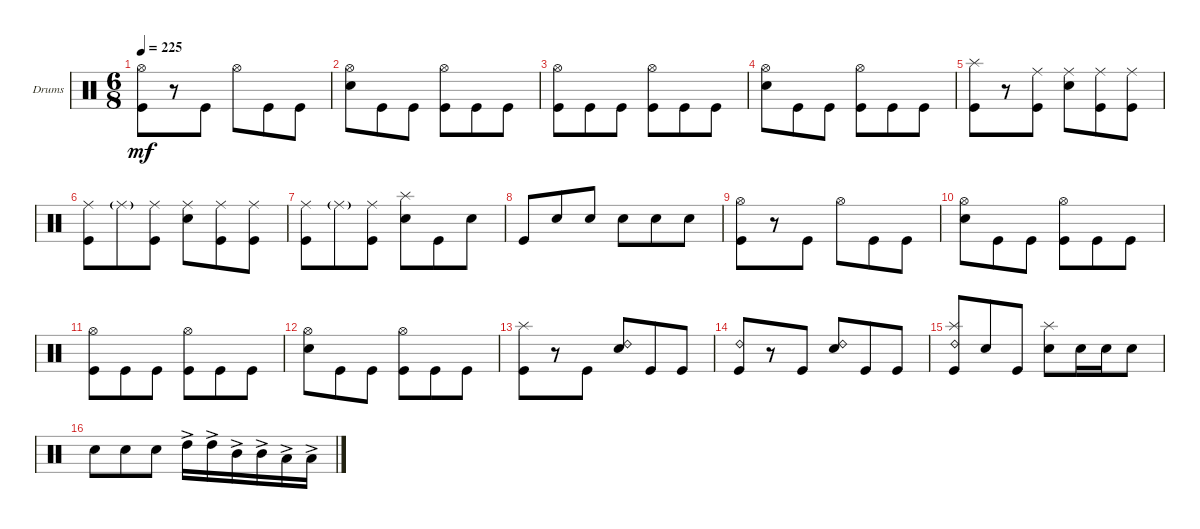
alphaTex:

\bracketExtendMode groupsimilarinstruments
\firstSystemTrackNameOrientation horizontal
\otherSystemsTrackNameOrientation horizontal
\track ("Drumkit" "Drums") {instrument percussion}
\staff {score}
\articulation defaults
\ts (6 8)
\tempo 225
\clef neutral
\ks c
("Kick (hit)" "Hi-Hat (open)").8{dy mf} r.8 "Kick (hit)".8 "Hi-Hat (open)".8 "Kick (hit)".8 "Kick (hit)".8 |
("Snare (hit) 2" "Hi-Hat (open)").8 "Kick (hit)".8 "Kick (hit)".8 ("Kick (hit)" "Hi-Hat (open)").8 "Kick (hit)".8 "Kick (hit)".8 |
("Kick (hit)" "Hi-Hat (open)").8 "Kick (hit)".8 "Kick (hit)".8 ("Kick (hit)" "Hi-Hat (open)").8 "Kick (hit)".8 "Kick (hit)".8 |
("Snare (hit) 2" "Hi-Hat (open)").8 "Kick (hit)".8 "Kick (hit)".8 ("Kick (hit)" "Hi-Hat (open)").8 "Kick (hit)".8 "Kick (hit)".8 |
("Kick (hit)" "Splash (hit)").8 r.8 ("Kick (hit)" "Ride (middle)").8 ("Snare (hit) 2" "Ride (middle)").8 ("Kick (hit)" "Ride (middle)").8 ("Kick (hit)" "Ride (middle)").8 |
("Kick (hit)" "Ride (middle)").8 "Ride (middle)"{g}.8 ("Kick (hit)" "Ride (middle)").8 ("Snare (hit) 2" "Ride (middle)").8 ("Kick (hit)" "Ride (middle)").8 ("Kick (hit)" "Ride (middle)").8 |
("Kick (hit)" "Ride (middle)").8 "Ride (middle)"{g}.8 ("Kick (hit)" "Ride (middle)").8 ("Snare (hit) 2" "Splash (hit)").8 "Kick (hit)".8 "Snare (hit) 2".8 |
"Kick (hit)".8 "Snare (hit) 2".8 "Snare (hit) 2".8 "Snare (hit) 2".8 "Snare (hit) 2".8 "Snare (hit) 2".8 |
("Kick (hit)" "Hi-Hat (open)").8 r.8 "Kick (hit)".8 "Hi-Hat (open)".8 "Kick (hit)".8 "Kick (hit)".8 |
("Snare (hit) 2" "Hi-Hat (open)").8 "Kick (hit)".8 "Kick (hit)".8 ("Kick (hit)" "Hi-Hat (open)").8 "Kick (hit)".8 "Kick (hit)".8 |
("Kick (hit)" "Hi-Hat (open)").8 "Kick (hit)".8 "Kick (hit)".8 ("Kick (hit)" "Hi-Hat (open)").8 "Kick (hit)".8 "Kick (hit)".8 |
("Snare (hit) 2" "Hi-Hat (open)").8 "Kick (hit)".8 "Kick (hit)".8 ("Kick (hit)" "Hi-Hat (open)").8 "Kick (hit)".8 "Kick (hit)".8 |
("Kick (hit)" "Splash (hit)").8 r.8 "Kick (hit)".8 ("Snare (hit) 2" "Ride (bell) 2").8 "Kick (hit)".8 "Kick (hit)".8 |
("Kick (hit)" "Ride (bell) 2").8 r.8 "Kick (hit)".8 ("Snare (hit) 2" "Ride (bell) 2").8 "Kick (hit)".8 "Kick (hit)".8 |
("Kick (hit)" "Ride (bell) 2" "Splash (hit)").8 "Snare (hit) 2".8 "Kick (hit)".8 ("Snare (hit) 2" "Splash (hit)").8 "Snare (hit) 2".16 "Snare (hit) 2".16 "Snare (hit) 2".8 |
"Snare (hit) 2".8 "Snare (hit) 2".8 "Snare (hit) 2".8 "High Tom (hit)"{ac}.16 "High Tom (hit)"{ac}.16 "Mid Tom (hit)"{ac}.16 "Mid Tom (hit)"{ac}.16 "Low Tom (hit)"{ac}.16 "Low Tom (hit)"{ac}.16
